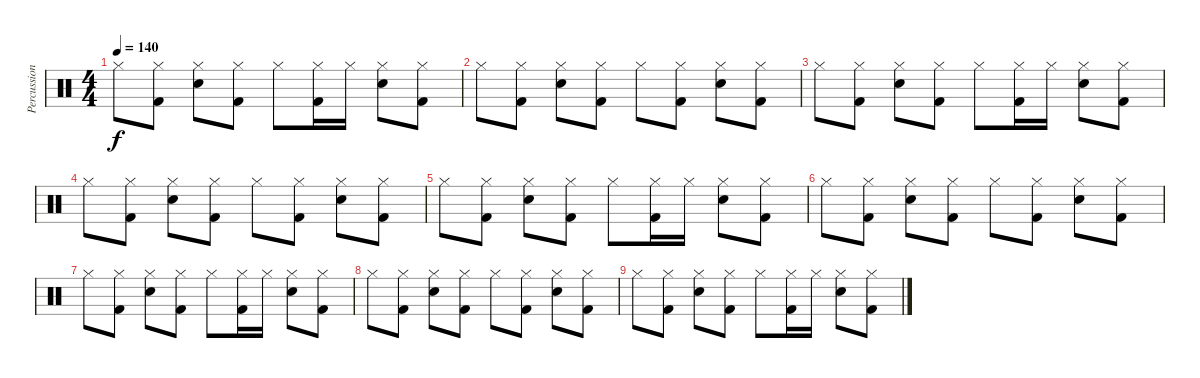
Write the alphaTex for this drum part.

\track ("Percussions" "Percussion") {instrument percussion}
\staff {score}
\articulation defaults
\ts (4 4)
\tempo 140
\clef neutral
\ks c "Hi-Hat (closed)".8{dy f}
("Hi-Hat (closed)" "Kick (hit) 2").8 ("Hi-Hat (closed)" "Snare (hit) 2").8 ("Hi-Hat (closed)" "Kick (hit) 2").8 "Hi-Hat (closed)".8 ("Hi-Hat (closed)" "Kick (hit) 2").16 "Hi-Hat (closed)".16 ("Hi-Hat (closed)" "Snare (hit) 2").8 ("Hi-Hat (closed)" "Kick (hit) 2").8 |
"Hi-Hat (closed)".8 ("Hi-Hat (closed)" "Kick (hit) 2").8 ("Hi-Hat (closed)" "Snare (hit) 2").8 ("Hi-Hat (closed)" "Kick (hit) 2").8 "Hi-Hat (closed)".8 ("Hi-Hat (closed)" "Kick (hit) 2").8 ("Hi-Hat (closed)" "Snare (hit) 2").8 ("Hi-Hat (closed)" "Kick (hit) 2").8 |
"Hi-Hat (closed)".8 ("Hi-Hat (closed)" "Kick (hit) 2").8 ("Hi-Hat (closed)" "Snare (hit) 2").8 ("Hi-Hat (closed)" "Kick (hit) 2").8 "Hi-Hat (closed)".8 ("Hi-Hat (closed)" "Kick (hit) 2").16 "Hi-Hat (closed)".16 ("Hi-Hat (closed)" "Snare (hit) 2").8 ("Hi-Hat (closed)" "Kick (hit) 2").8 |
"Hi-Hat (closed)".8 ("Hi-Hat (closed)" "Kick (hit) 2").8 ("Hi-Hat (closed)" "Snare (hit) 2").8 ("Hi-Hat (closed)" "Kick (hit) 2").8 "Hi-Hat (closed)".8 ("Hi-Hat (closed)" "Kick (hit) 2").8 ("Hi-Hat (closed)" "Snare (hit) 2").8 ("Hi-Hat (closed)" "Kick (hit) 2").8 |
"Hi-Hat (closed)".8 ("Hi-Hat (closed)" "Kick (hit) 2").8 ("Hi-Hat (closed)" "Snare (hit) 2").8 ("Hi-Hat (closed)" "Kick (hit) 2").8 "Hi-Hat (closed)".8 ("Hi-Hat (closed)" "Kick (hit) 2").16 "Hi-Hat (closed)".16 ("Hi-Hat (closed)" "Snare (hit) 2").8 ("Hi-Hat (closed)" "Kick (hit) 2").8 |
"Hi-Hat (closed)".8 ("Hi-Hat (closed)" "Kick (hit) 2").8 ("Hi-Hat (closed)" "Snare (hit) 2").8 ("Hi-Hat (closed)" "Kick (hit) 2").8 "Hi-Hat (closed)".8 ("Hi-Hat (closed)" "Kick (hit) 2").8 ("Hi-Hat (closed)" "Snare (hit) 2").8 ("Hi-Hat (closed)" "Kick (hit) 2").8 |
"Hi-Hat (closed)".8 ("Hi-Hat (closed)" "Kick (hit) 2").8 ("Hi-Hat (closed)" "Snare (hit) 2").8 ("Hi-Hat (closed)" "Kick (hit) 2").8 "Hi-Hat (closed)".8 ("Hi-Hat (closed)" "Kick (hit) 2").16 "Hi-Hat (closed)".16 ("Hi-Hat (closed)" "Snare (hit) 2").8 ("Hi-Hat (closed)" "Kick (hit) 2").8 |
"Hi-Hat (closed)".8 ("Hi-Hat (closed)" "Kick (hit) 2").8 ("Hi-Hat (closed)" "Snare (hit) 2").8 ("Hi-Hat (closed)" "Kick (hit) 2").8 "Hi-Hat (closed)".8 ("Hi-Hat (closed)" "Kick (hit) 2").8 ("Hi-Hat (closed)" "Snare (hit) 2").8 ("Hi-Hat (closed)" "Kick (hit) 2").8 |
"Hi-Hat (closed)".8 ("Hi-Hat (closed)" "Kick (hit) 2").8 ("Hi-Hat (closed)" "Snare (hit) 2").8 ("Hi-Hat (closed)" "Kick (hit) 2").8 "Hi-Hat (closed)".8 ("Hi-Hat (closed)" "Kick (hit) 2").16 "Hi-Hat (closed)".16 ("Hi-Hat (closed)" "Snare (hit) 2").8 ("Hi-Hat (closed)" "Kick (hit) 2").8
